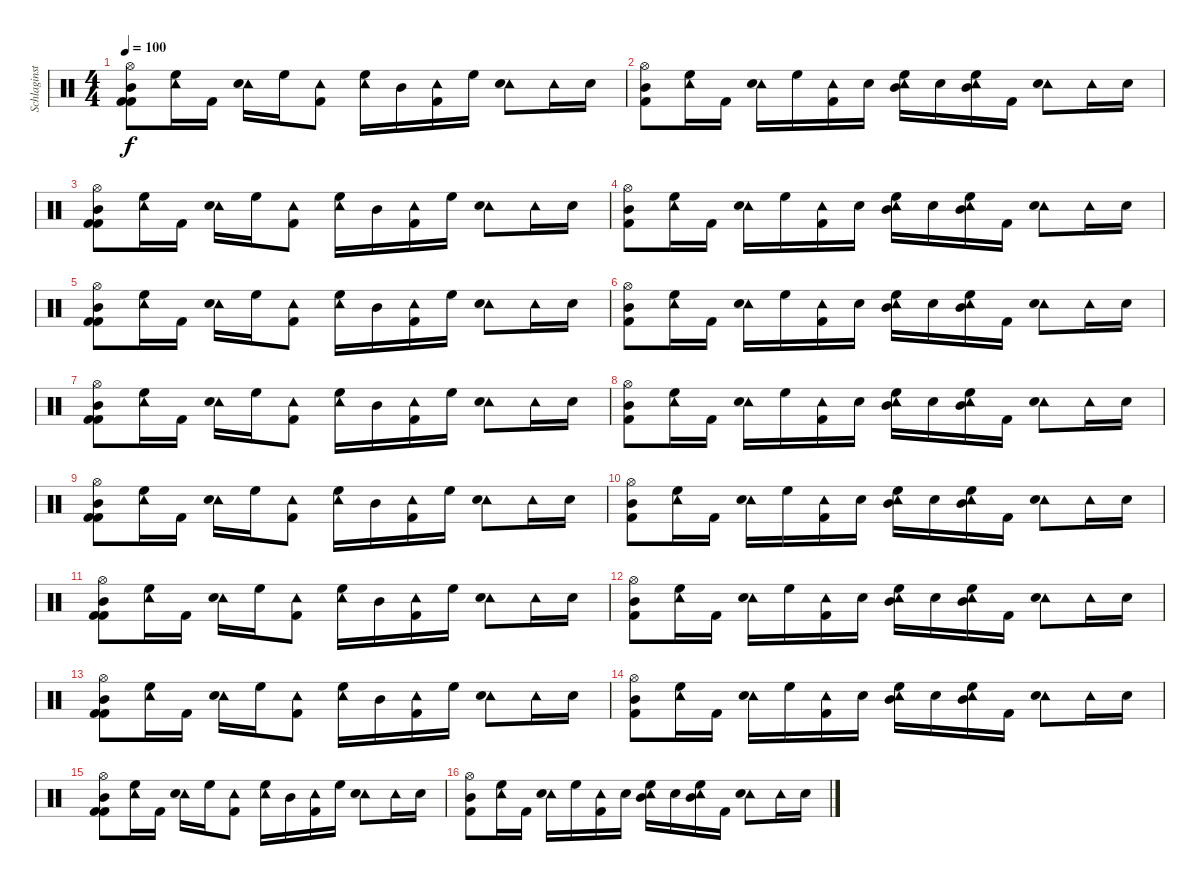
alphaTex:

\track ("Schlaginstrumente - Auswahl" "Schlaginst") {instrument percussion}
\staff {score}
\articulation defaults
\ts (4 4)
\tempo 100
\clef neutral
\ks c
("Hi-Hat (open)" "Kick (hit) 2" "Mid Tom (hit)" "Kick (hit) 2").8{dy f} ("Tambourine (hit)" "High Floor Tom (hit)").16 "Kick (hit) 2".16 ("Tambourine (hit)" "Snare (hit) 2").16 "High Floor Tom (hit)".16 ("Tambourine (hit)" "Kick (hit) 2").8 ("Tambourine (hit)" "High Floor Tom (hit)").16 "Mid Tom (hit)".16 ("Tambourine (hit)" "Kick (hit) 2").16 "High Floor Tom (hit)".16 ("Tambourine (hit)" "Snare (hit) 2").8 "Tambourine (hit)".16 "Snare (hit) 2".16 |
("Hi-Hat (open)" "Mid Tom (hit)" "Kick (hit) 2").8 ("Tambourine (hit)" "High Floor Tom (hit)").16 "Kick (hit) 2".16 ("Tambourine (hit)" "Snare (hit) 2").16 "High Floor Tom (hit)".16 ("Tambourine (hit)" "Kick (hit) 2").16 "Electric Snare (hit)".16 ("Tambourine (hit)" "High Floor Tom (hit)" "Mid Tom (hit)").16 "Electric Snare (hit)".16 ("Tambourine (hit)" "High Floor Tom (hit)" "Mid Tom (hit)").16 "Kick (hit) 2".16 ("Tambourine (hit)" "Snare (hit) 2").8 "Tambourine (hit)".16 "Snare (hit) 2".16 |
("Hi-Hat (open)" "Kick (hit) 2" "Mid Tom (hit)" "Kick (hit) 2").8 ("Tambourine (hit)" "High Floor Tom (hit)").16 "Kick (hit) 2".16 ("Tambourine (hit)" "Snare (hit) 2").16 "High Floor Tom (hit)".16 ("Tambourine (hit)" "Kick (hit) 2").8 ("Tambourine (hit)" "High Floor Tom (hit)").16 "Mid Tom (hit)".16 ("Tambourine (hit)" "Kick (hit) 2").16 "High Floor Tom (hit)".16 ("Tambourine (hit)" "Snare (hit) 2").8 "Tambourine (hit)".16 "Snare (hit) 2".16 |
("Hi-Hat (open)" "Mid Tom (hit)" "Kick (hit) 2").8 ("Tambourine (hit)" "High Floor Tom (hit)").16 "Kick (hit) 2".16 ("Tambourine (hit)" "Snare (hit) 2").16 "High Floor Tom (hit)".16 ("Tambourine (hit)" "Kick (hit) 2").16 "Electric Snare (hit)".16 ("Tambourine (hit)" "High Floor Tom (hit)" "Mid Tom (hit)").16 "Electric Snare (hit)".16 ("Tambourine (hit)" "High Floor Tom (hit)" "Mid Tom (hit)").16 "Kick (hit) 2".16 ("Tambourine (hit)" "Snare (hit) 2").8 "Tambourine (hit)".16 "Snare (hit) 2".16 |
("Hi-Hat (open)" "Kick (hit) 2" "Mid Tom (hit)" "Kick (hit) 2").8 ("Tambourine (hit)" "High Floor Tom (hit)").16 "Kick (hit) 2".16 ("Tambourine (hit)" "Snare (hit) 2").16 "High Floor Tom (hit)".16 ("Tambourine (hit)" "Kick (hit) 2").8 ("Tambourine (hit)" "High Floor Tom (hit)").16 "Mid Tom (hit)".16 ("Tambourine (hit)" "Kick (hit) 2").16 "High Floor Tom (hit)".16 ("Tambourine (hit)" "Snare (hit) 2").8 "Tambourine (hit)".16 "Snare (hit) 2".16 |
("Hi-Hat (open)" "Mid Tom (hit)" "Kick (hit) 2").8 ("Tambourine (hit)" "High Floor Tom (hit)").16 "Kick (hit) 2".16 ("Tambourine (hit)" "Snare (hit) 2").16 "High Floor Tom (hit)".16 ("Tambourine (hit)" "Kick (hit) 2").16 "Electric Snare (hit)".16 ("Tambourine (hit)" "High Floor Tom (hit)" "Mid Tom (hit)").16 "Electric Snare (hit)".16 ("Tambourine (hit)" "High Floor Tom (hit)" "Mid Tom (hit)").16 "Kick (hit) 2".16 ("Tambourine (hit)" "Snare (hit) 2").8 "Tambourine (hit)".16 "Snare (hit) 2".16 |
("Hi-Hat (open)" "Kick (hit) 2" "Mid Tom (hit)" "Kick (hit) 2").8 ("Tambourine (hit)" "High Floor Tom (hit)").16 "Kick (hit) 2".16 ("Tambourine (hit)" "Snare (hit) 2").16 "High Floor Tom (hit)".16 ("Tambourine (hit)" "Kick (hit) 2").8 ("Tambourine (hit)" "High Floor Tom (hit)").16 "Mid Tom (hit)".16 ("Tambourine (hit)" "Kick (hit) 2").16 "High Floor Tom (hit)".16 ("Tambourine (hit)" "Snare (hit) 2").8 "Tambourine (hit)".16 "Snare (hit) 2".16 |
("Hi-Hat (open)" "Mid Tom (hit)" "Kick (hit) 2").8 ("Tambourine (hit)" "High Floor Tom (hit)").16 "Kick (hit) 2".16 ("Tambourine (hit)" "Snare (hit) 2").16 "High Floor Tom (hit)".16 ("Tambourine (hit)" "Kick (hit) 2").16 "Electric Snare (hit)".16 ("Tambourine (hit)" "High Floor Tom (hit)" "Mid Tom (hit)").16 "Electric Snare (hit)".16 ("Tambourine (hit)" "High Floor Tom (hit)" "Mid Tom (hit)").16 "Kick (hit) 2".16 ("Tambourine (hit)" "Snare (hit) 2").8 "Tambourine (hit)".16 "Snare (hit) 2".16 |
("Hi-Hat (open)" "Kick (hit) 2" "Mid Tom (hit)" "Kick (hit) 2").8 ("Tambourine (hit)" "High Floor Tom (hit)").16 "Kick (hit) 2".16 ("Tambourine (hit)" "Snare (hit) 2").16 "High Floor Tom (hit)".16 ("Tambourine (hit)" "Kick (hit) 2").8 ("Tambourine (hit)" "High Floor Tom (hit)").16 "Mid Tom (hit)".16 ("Tambourine (hit)" "Kick (hit) 2").16 "High Floor Tom (hit)".16 ("Tambourine (hit)" "Snare (hit) 2").8 "Tambourine (hit)".16 "Snare (hit) 2".16 |
("Hi-Hat (open)" "Mid Tom (hit)" "Kick (hit) 2").8 ("Tambourine (hit)" "High Floor Tom (hit)").16 "Kick (hit) 2".16 ("Tambourine (hit)" "Snare (hit) 2").16 "High Floor Tom (hit)".16 ("Tambourine (hit)" "Kick (hit) 2").16 "Electric Snare (hit)".16 ("Tambourine (hit)" "High Floor Tom (hit)" "Mid Tom (hit)").16 "Electric Snare (hit)".16 ("Tambourine (hit)" "High Floor Tom (hit)" "Mid Tom (hit)").16 "Kick (hit) 2".16 ("Tambourine (hit)" "Snare (hit) 2").8 "Tambourine (hit)".16 "Snare (hit) 2".16 |
("Hi-Hat (open)" "Kick (hit) 2" "Mid Tom (hit)" "Kick (hit) 2").8 ("Tambourine (hit)" "High Floor Tom (hit)").16 "Kick (hit) 2".16 ("Tambourine (hit)" "Snare (hit) 2").16 "High Floor Tom (hit)".16 ("Tambourine (hit)" "Kick (hit) 2").8 ("Tambourine (hit)" "High Floor Tom (hit)").16 "Mid Tom (hit)".16 ("Tambourine (hit)" "Kick (hit) 2").16 "High Floor Tom (hit)".16 ("Tambourine (hit)" "Snare (hit) 2").8 "Tambourine (hit)".16 "Snare (hit) 2".16 |
("Hi-Hat (open)" "Mid Tom (hit)" "Kick (hit) 2").8 ("Tambourine (hit)" "High Floor Tom (hit)").16 "Kick (hit) 2".16 ("Tambourine (hit)" "Snare (hit) 2").16 "High Floor Tom (hit)".16 ("Tambourine (hit)" "Kick (hit) 2").16 "Electric Snare (hit)".16 ("Tambourine (hit)" "High Floor Tom (hit)" "Mid Tom (hit)").16 "Electric Snare (hit)".16 ("Tambourine (hit)" "High Floor Tom (hit)" "Mid Tom (hit)").16 "Kick (hit) 2".16 ("Tambourine (hit)" "Snare (hit) 2").8 "Tambourine (hit)".16 "Snare (hit) 2".16 |
("Hi-Hat (open)" "Kick (hit) 2" "Mid Tom (hit)" "Kick (hit) 2").8 ("Tambourine (hit)" "High Floor Tom (hit)").16 "Kick (hit) 2".16 ("Tambourine (hit)" "Snare (hit) 2").16 "High Floor Tom (hit)".16 ("Tambourine (hit)" "Kick (hit) 2").8 ("Tambourine (hit)" "High Floor Tom (hit)").16 "Mid Tom (hit)".16 ("Tambourine (hit)" "Kick (hit) 2").16 "High Floor Tom (hit)".16 ("Tambourine (hit)" "Snare (hit) 2").8 "Tambourine (hit)".16 "Snare (hit) 2".16 |
("Hi-Hat (open)" "Mid Tom (hit)" "Kick (hit) 2").8 ("Tambourine (hit)" "High Floor Tom (hit)").16 "Kick (hit) 2".16 ("Tambourine (hit)" "Snare (hit) 2").16 "High Floor Tom (hit)".16 ("Tambourine (hit)" "Kick (hit) 2").16 "Electric Snare (hit)".16 ("Tambourine (hit)" "High Floor Tom (hit)" "Mid Tom (hit)").16 "Electric Snare (hit)".16 ("Tambourine (hit)" "High Floor Tom (hit)" "Mid Tom (hit)").16 "Kick (hit) 2".16 ("Tambourine (hit)" "Snare (hit) 2").8 "Tambourine (hit)".16 "Snare (hit) 2".16 |
("Hi-Hat (open)" "Kick (hit) 2" "Mid Tom (hit)" "Kick (hit) 2").8 ("Tambourine (hit)" "High Floor Tom (hit)").16 "Kick (hit) 2".16 ("Tambourine (hit)" "Snare (hit) 2").16 "High Floor Tom (hit)".16 ("Tambourine (hit)" "Kick (hit) 2").8 ("Tambourine (hit)" "High Floor Tom (hit)").16 "Mid Tom (hit)".16 ("Tambourine (hit)" "Kick (hit) 2").16 "High Floor Tom (hit)".16 ("Tambourine (hit)" "Snare (hit) 2").8 "Tambourine (hit)".16 "Snare (hit) 2".16 |
("Hi-Hat (open)" "Mid Tom (hit)" "Kick (hit) 2").8 ("Tambourine (hit)" "High Floor Tom (hit)").16 "Kick (hit) 2".16 ("Tambourine (hit)" "Snare (hit) 2").16 "High Floor Tom (hit)".16 ("Tambourine (hit)" "Kick (hit) 2").16 "Electric Snare (hit)".16 ("Tambourine (hit)" "High Floor Tom (hit)" "Mid Tom (hit)").16 "Electric Snare (hit)".16 ("Tambourine (hit)" "High Floor Tom (hit)" "Mid Tom (hit)").16 "Kick (hit) 2".16 ("Tambourine (hit)" "Snare (hit) 2").8 "Tambourine (hit)".16 "Snare (hit) 2".16
